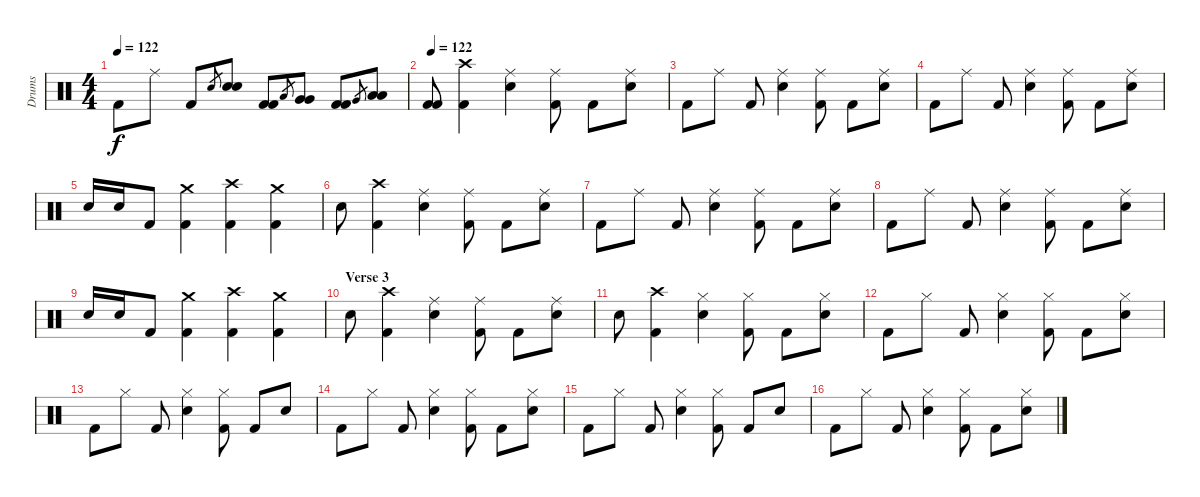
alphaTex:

\track ("Drums" "Drums") {instrument percussion}
\staff {score}
\articulation defaults
\ts (4 4)
\tempo 122
\clef neutral
\ks c "Kick (hit) 2".8{dy f} "Ride (middle)".8 "Kick (hit) 2".8 "Snare (hit) 2".8{gr}
("Snare (hit) 2" "Snare (hit) 2").8 ("Kick (hit) 2" "Kick (hit) 2").8 "Low Tom (hit)".8{gr} ("Very Low Tom (hit)" "Very Low Tom (hit)").8 ("Kick (hit) 2" "Kick (hit) 2").8 "Very Low Tom (hit)".8{gr} ("Low Floor Tom (hit)" "Low Floor Tom (hit)").8 |
\tempo 122
("Kick (hit) 2" "Kick (hit) 2").8 ("Crash high (hit)" "Kick (hit) 2").4 ("Ride (middle)" "Snare (hit) 2").4 ("Ride (middle)" "Kick (hit) 2").8 "Kick (hit) 2".8 ("Ride (middle)" "Snare (hit) 2").8 |
"Kick (hit) 2".8 "Ride (middle)".8 "Kick (hit) 2".8 ("Ride (middle)" "Snare (hit) 2").4 ("Ride (middle)" "Kick (hit) 2").8 "Kick (hit) 2".8 ("Ride (middle)" "Snare (hit) 2").8 |
"Kick (hit) 2".8 "Ride (middle)".8 "Kick (hit) 2".8 ("Ride (middle)" "Snare (hit) 2").4 ("Ride (middle)" "Kick (hit) 2").8 "Kick (hit) 2".8 ("Ride (middle)" "Snare (hit) 2").8 |
"Snare (hit) 2".16 "Snare (hit) 2".16 "Kick (hit) 2".8 ("Crash medium (hit)" "Kick (hit) 2").4 ("Crash high (hit)" "Kick (hit) 2").4 ("Crash medium (hit)" "Kick (hit) 2").4 |
"Snare (hit) 2".8 ("Crash high (hit)" "Kick (hit) 2").4 ("Ride (middle)" "Snare (hit) 2").4 ("Ride (middle)" "Kick (hit) 2").8 "Kick (hit) 2".8 ("Ride (middle)" "Snare (hit) 2").8 |
"Kick (hit) 2".8 "Ride (middle)".8 "Kick (hit) 2".8 ("Ride (middle)" "Snare (hit) 2").4 ("Ride (middle)" "Kick (hit) 2").8 "Kick (hit) 2".8 ("Ride (middle)" "Snare (hit) 2").8 |
"Kick (hit) 2".8 "Ride (middle)".8 "Kick (hit) 2".8 ("Ride (middle)" "Snare (hit) 2").4 ("Ride (middle)" "Kick (hit) 2").8 "Kick (hit) 2".8 ("Ride (middle)" "Snare (hit) 2").8 |
"Snare (hit) 2".16 "Snare (hit) 2".16 "Kick (hit) 2".8 ("Crash medium (hit)" "Kick (hit) 2").4 ("Crash high (hit)" "Kick (hit) 2").4 ("Crash medium (hit)" "Kick (hit) 2").4 |
\section ("" "Verse 3")
"Snare (hit) 2".8 ("Crash high (hit)" "Kick (hit) 2").4 ("Ride (middle)" "Snare (hit) 2").4 ("Ride (middle)" "Kick (hit) 2").8 "Kick (hit) 2".8 ("Ride (middle)" "Snare (hit) 2").8 |
"Snare (hit) 2".8 ("Crash high (hit)" "Kick (hit) 2").4 ("Hi-Hat (closed)" "Snare (hit) 2").4 ("Hi-Hat (closed)" "Kick (hit) 2").8 "Kick (hit) 2".8 ("Hi-Hat (closed)" "Snare (hit) 2").8 |
"Kick (hit) 2".8 "Hi-Hat (closed)".8 "Kick (hit) 2".8 ("Hi-Hat (closed)" "Snare (hit) 2").4 ("Hi-Hat (closed)" "Kick (hit) 2").8 "Kick (hit) 2".8 ("Hi-Hat (closed)" "Snare (hit) 2").8 |
"Kick (hit) 2".8 "Hi-Hat (closed)".8 "Kick (hit) 2".8 ("Hi-Hat (closed)" "Snare (hit) 2").4 ("Hi-Hat (closed)" "Kick (hit) 2").8 "Kick (hit) 2".8 "Snare (hit) 2".8 |
"Kick (hit) 2".8 "Hi-Hat (closed)".8 "Kick (hit) 2".8 ("Hi-Hat (closed)" "Snare (hit) 2").4 ("Hi-Hat (closed)" "Kick (hit) 2").8 "Kick (hit) 2".8 ("Hi-Hat (closed)" "Snare (hit) 2").8 |
"Kick (hit) 2".8 "Hi-Hat (closed)".8 "Kick (hit) 2".8 ("Hi-Hat (closed)" "Snare (hit) 2").4 ("Hi-Hat (closed)" "Kick (hit) 2").8 "Kick (hit) 2".8 "Snare (hit) 2".8 |
"Kick (hit) 2".8 "Hi-Hat (closed)".8 "Kick (hit) 2".8 ("Hi-Hat (closed)" "Snare (hit) 2").4 ("Hi-Hat (closed)" "Kick (hit) 2").8 "Kick (hit) 2".8 ("Hi-Hat (closed)" "Snare (hit) 2").8
